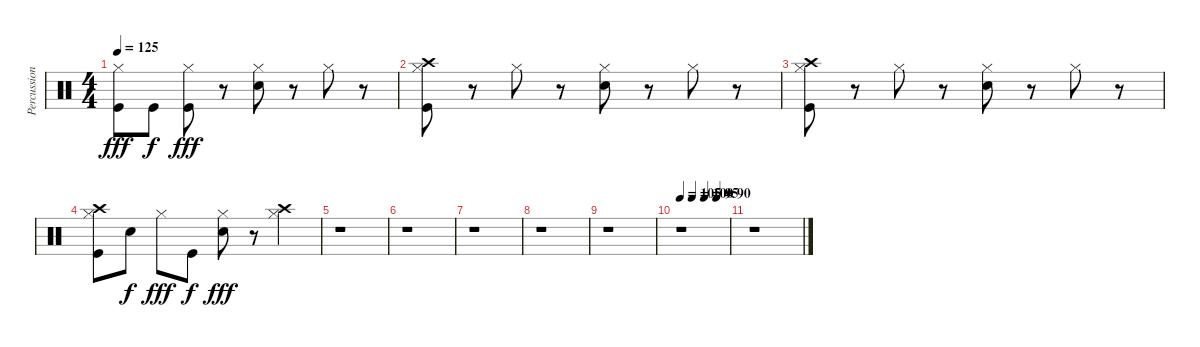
\track ("Percussion" "Percussion") {instrument percussion}
\staff {score}
\articulation defaults
\ts (4 4)
\tempo 125
\clef neutral
\ks c
("Hi-Hat (closed)" "Kick (hit)").8{dy fff} "Kick (hit)".8{dy f} ("Hi-Hat (closed)" "Kick (hit)").8{dy fff} r.8 ("Hi-Hat (closed)" "Snare (hit) 2").8 r.8 "Hi-Hat (closed)".8 r.8 |
("Hi-Hat (closed)" "Crash high (hit)" "Kick (hit)").8 r.8 "Hi-Hat (closed)".8 r.8 ("Hi-Hat (closed)" "Snare (hit) 2").8 r.8 "Hi-Hat (closed)".8 r.8 |
("Hi-Hat (closed)" "Crash high (hit)" "Kick (hit)").8 r.8 "Hi-Hat (closed)".8 r.8 ("Hi-Hat (closed)" "Snare (hit) 2").8 r.8 "Hi-Hat (closed)".8 r.8 |
("Hi-Hat (closed)" "Crash high (hit)" "Kick (hit)").8 "Snare (hit) 2".8{dy f} "Hi-Hat (closed)".8{dy fff} "Kick (hit)".8{dy f} ("Hi-Hat (closed)" "Snare (hit) 2").8{dy fff} r.8 ("Hi-Hat (closed)" "Crash high (hit)").4 |
r.1 |
r.1 |
r.1 |
r.1 |
r.1 |
\tempo 105
\tempo (100 0.25)
\tempo (95 0.5)
\tempo (90 0.75)
r.1 |
r.1
